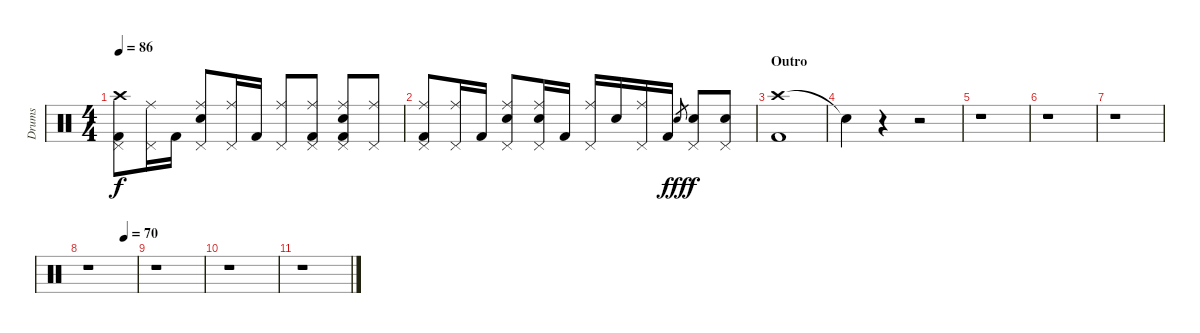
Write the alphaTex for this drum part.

\track ("Drums" "Drums") {instrument percussion}
\staff {score}
\articulation defaults
\ts (4 4)
\tempo 86
\clef neutral
\ks c
("Crash high (hit)" "Kick (hit) 2" "Pedal Hi-Hat (hit)").8{dy f} ("Ride (middle)" "Pedal Hi-Hat (hit)").16 "Kick (hit) 2".16 ("Ride (middle)" "Electric Snare (hit)" "Pedal Hi-Hat (hit)").8 ("Ride (middle)" "Pedal Hi-Hat (hit)").16 "Kick (hit) 2".16 ("Ride (middle)" "Pedal Hi-Hat (hit)").8 ("Ride (middle)" "Kick (hit) 2" "Pedal Hi-Hat (hit)").8 ("Ride (middle)" "Electric Snare (hit)" "Kick (hit) 2" "Pedal Hi-Hat (hit)").8 ("Ride (middle)" "Pedal Hi-Hat (hit)").8 |
("Ride (middle)" "Kick (hit) 2" "Pedal Hi-Hat (hit)").8 ("Ride (middle)" "Pedal Hi-Hat (hit)").16 "Kick (hit) 2".16 ("Ride (middle)" "Electric Snare (hit)" "Pedal Hi-Hat (hit)").8 ("Ride (middle)" "Electric Snare (hit)" "Pedal Hi-Hat (hit)").16 "Kick (hit) 2".16 ("Ride (middle)" "Pedal Hi-Hat (hit)").16 "Electric Snare (hit)".16 ("Ride (middle)" "Pedal Hi-Hat (hit)").16 "Kick (hit) 2".16 "Electric Snare (hit)".8{gr dy fff} ("Electric Snare (hit)" "Pedal Hi-Hat (hit)").8{dy f} ("Electric Snare (hit)" "Pedal Hi-Hat (hit)").8 |
\section ("" "Outro")
("Crash high (hit)" "Kick (hit) 2").1 |
"Snare (hit)"{t}.4 r.4 r.2 |
r.1 |
r.1 |
r.1 |
\tempo (70 0.75)
r.1 |
r.1 |
r.1 |
r.1
